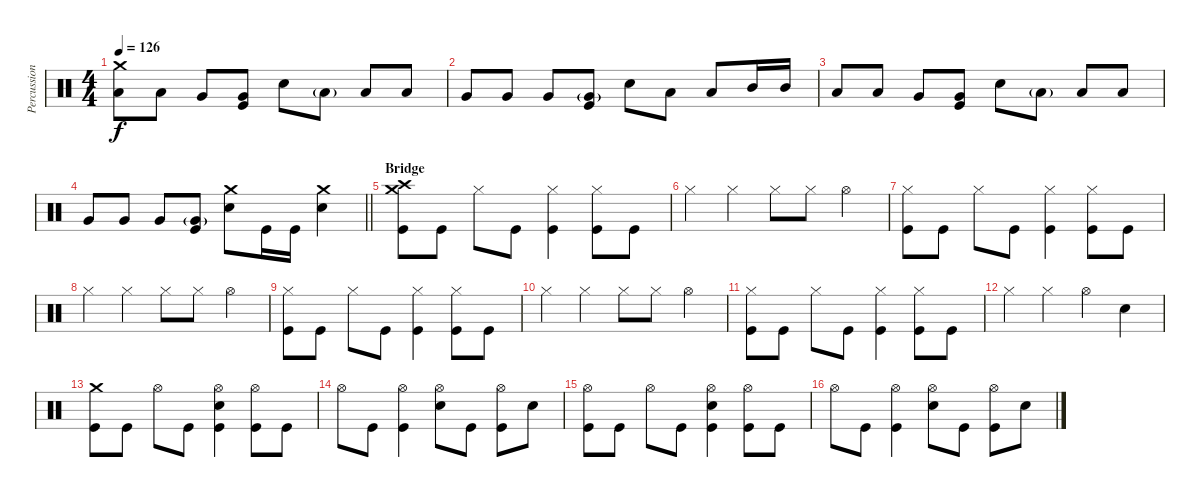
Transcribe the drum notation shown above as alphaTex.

\track ("Percussion" "Percussion") {instrument percussion}
\staff {score}
\articulation defaults
\ts (4 4)
\tempo 126
\clef neutral
\ks c
("Crash medium (hit)" "Low Floor Tom (hit)").8{dy f} "Low Floor Tom (hit)".8 "Very Low Tom (hit)".8 ("Very Low Tom (hit)" "Kick (hit)").8 "Electric Snare (hit)".8 "Low Floor Tom (hit)"{g}.8 "Low Floor Tom (hit)".8 "Low Floor Tom (hit)".8 |
"Very Low Tom (hit)".8 "Very Low Tom (hit)".8 "Very Low Tom (hit)".8 ("Very Low Tom (hit)"{g} "Kick (hit)").8 "Electric Snare (hit)".8 "Low Tom (hit)".8 "Low Tom (hit)".8 "Mid Tom (hit)".16 "Mid Tom (hit)".16 |
"Low Floor Tom (hit)".8 "Low Floor Tom (hit)".8 "Very Low Tom (hit)".8 ("Very Low Tom (hit)" "Kick (hit)").8 "Electric Snare (hit)".8 "Low Floor Tom (hit)"{g}.8 "Low Floor Tom (hit)".8 "Low Floor Tom (hit)".8 |
\barLineRight lightlight "Very Low Tom (hit)".8 "Very Low Tom (hit)".8 "Very Low Tom (hit)".8
("Very Low Tom (hit)"{g} "Kick (hit)").8 ("Crash medium (hit)" "Electric Snare (hit)").8 "Kick (hit)".16 "Kick (hit)".16 ("Crash medium (hit)" "Electric Snare (hit)").4 |
\section ("" "Bridge")
("Crash high (hit)" "Crash medium (hit)" "Kick (hit)").8 "Kick (hit)".8 "Hi-Hat (closed)".8 "Kick (hit)".8 ("Hi-Hat (closed)" "Kick (hit)").4 ("Hi-Hat (closed)" "Kick (hit)").8 "Kick (hit)".8 |
"Hi-Hat (closed)".4 "Hi-Hat (closed)".4 "Hi-Hat (closed)".8 "Hi-Hat (closed)".8 "Hi-Hat (open)".4 |
("Hi-Hat (closed)" "Kick (hit)").8 "Kick (hit)".8 "Hi-Hat (closed)".8 "Kick (hit)".8 ("Hi-Hat (closed)" "Kick (hit)").4 ("Hi-Hat (closed)" "Kick (hit)").8 "Kick (hit)".8 |
"Hi-Hat (closed)".4 "Hi-Hat (closed)".4 "Hi-Hat (closed)".8 "Hi-Hat (closed)".8 "Hi-Hat (open)".4 |
("Hi-Hat (closed)" "Kick (hit)").8 "Kick (hit)".8 "Hi-Hat (closed)".8 "Kick (hit)".8 ("Hi-Hat (closed)" "Kick (hit)").4 ("Hi-Hat (closed)" "Kick (hit)").8 "Kick (hit)".8 |
"Hi-Hat (closed)".4 "Hi-Hat (closed)".4 "Hi-Hat (closed)".8 "Hi-Hat (closed)".8 "Hi-Hat (open)".4 |
("Hi-Hat (closed)" "Kick (hit)").8 "Kick (hit)".8 "Hi-Hat (closed)".8 "Kick (hit)".8 ("Hi-Hat (closed)" "Kick (hit)").4 ("Hi-Hat (closed)" "Kick (hit)").8 "Kick (hit)".8 |
"Hi-Hat (closed)".4 "Hi-Hat (closed)".4 "Hi-Hat (open)".4 "Electric Snare (hit)".4 |
("Crash medium (hit)" "Kick (hit)").8 "Kick (hit)".8 "Hi-Hat (open)".8 "Kick (hit)".8 ("Hi-Hat (open)" "Electric Snare (hit)" "Kick (hit)").4 ("Hi-Hat (open)" "Kick (hit)").8 "Kick (hit)".8 |
"Hi-Hat (open)".8 "Kick (hit)".8 ("Hi-Hat (open)" "Kick (hit)").4 ("Hi-Hat (open)" "Electric Snare (hit)").8 "Kick (hit)".8 ("Hi-Hat (open)" "Kick (hit)").8 "Electric Snare (hit)".8 |
("Hi-Hat (open)" "Kick (hit)").8 "Kick (hit)".8 "Hi-Hat (open)".8 "Kick (hit)".8 ("Hi-Hat (open)" "Electric Snare (hit)" "Kick (hit)").4 ("Hi-Hat (open)" "Kick (hit)").8 "Kick (hit)".8 |
"Hi-Hat (open)".8 "Kick (hit)".8 ("Hi-Hat (open)" "Kick (hit)").4 ("Hi-Hat (open)" "Electric Snare (hit)").8 "Kick (hit)".8 ("Hi-Hat (open)" "Kick (hit)").8 "Electric Snare (hit)".8
